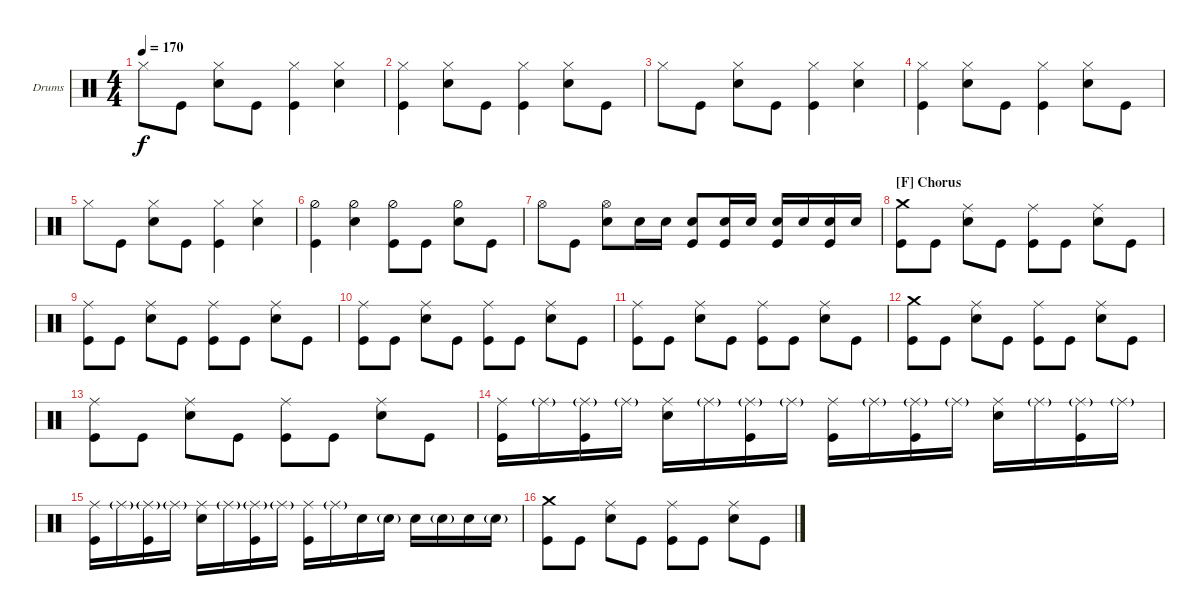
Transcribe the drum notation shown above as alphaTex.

\defaultSystemsLayout 4
\bracketExtendMode groupsimilarinstruments
\firstSystemTrackNameOrientation horizontal
\otherSystemsTrackNameOrientation horizontal
\track ("Benny Horowitz" "Drums") {instrument percussion}
\staff {score}
\articulation defaults
\ts (4 4)
\tempo 170
\clef neutral
\ks c "Hi-Hat (closed)".8{dy f} "Kick (hit)".8
("Snare (hit) 2" "Hi-Hat (closed)").8 "Kick (hit)".8 ("Kick (hit)" "Hi-Hat (closed)").4 ("Snare (hit) 2" "Hi-Hat (closed)").4 |
("Kick (hit)" "Hi-Hat (closed)").4 ("Snare (hit) 2" "Hi-Hat (closed)").8 "Kick (hit)".8 ("Kick (hit)" "Hi-Hat (closed)").4 ("Snare (hit) 2" "Hi-Hat (closed)").8 "Kick (hit)".8 |
"Hi-Hat (closed)".8 "Kick (hit)".8 ("Snare (hit) 2" "Hi-Hat (closed)").8 "Kick (hit)".8 ("Kick (hit)" "Hi-Hat (closed)").4 ("Snare (hit) 2" "Hi-Hat (closed)").4 |
("Kick (hit)" "Hi-Hat (closed)").4 ("Snare (hit) 2" "Hi-Hat (closed)").8 "Kick (hit)".8 ("Kick (hit)" "Hi-Hat (closed)").4 ("Snare (hit) 2" "Hi-Hat (closed)").8 "Kick (hit)".8 |
"Hi-Hat (closed)".8 "Kick (hit)".8 ("Snare (hit) 2" "Hi-Hat (closed)").8 "Kick (hit)".8 ("Kick (hit)" "Hi-Hat (closed)").4 ("Snare (hit) 2" "Hi-Hat (closed)").4 |
("Kick (hit)" "Hi-Hat (half)").4 ("Snare (hit) 2" "Hi-Hat (half)").4 ("Kick (hit)" "Hi-Hat (half)").8 "Kick (hit)".8 ("Snare (hit) 2" "Hi-Hat (half)").8 "Kick (hit)".8 |
"Hi-Hat (open)".8 "Kick (hit)".8 ("Snare (hit) 2" "Hi-Hat (open)").8 "Snare (hit) 2".16 "Snare (hit) 2".16 ("Snare (hit) 2" "Kick (hit)").8 ("Snare (hit) 2" "Kick (hit)").16 "Snare (hit) 2".16 ("Snare (hit) 2" "Kick (hit)").16 "Snare (hit) 2".16 ("Snare (hit) 2" "Kick (hit)").16 "Snare (hit) 2".16 |
\section ("F" "Chorus")
("Crash medium (hit)" "Kick (hit)").8 "Kick (hit)".8 ("Snare (hit) 2" "Ride (middle)").8 "Kick (hit)".8 ("Kick (hit)" "Ride (middle)").8 "Kick (hit)".8 ("Snare (hit) 2" "Ride (middle)").8 "Kick (hit)".8 |
("Kick (hit)" "Ride (middle)").8 "Kick (hit)".8 ("Snare (hit) 2" "Ride (middle)").8 "Kick (hit)".8 ("Kick (hit)" "Ride (middle)").8 "Kick (hit)".8 ("Snare (hit) 2" "Ride (middle)").8 "Kick (hit)".8 |
("Kick (hit)" "Ride (middle)").8 "Kick (hit)".8 ("Snare (hit) 2" "Ride (middle)").8 "Kick (hit)".8 ("Kick (hit)" "Ride (middle)").8 "Kick (hit)".8 ("Snare (hit) 2" "Ride (middle)").8 "Kick (hit)".8 |
("Kick (hit)" "Ride (middle)").8 "Kick (hit)".8 ("Snare (hit) 2" "Ride (middle)").8 "Kick (hit)".8 ("Kick (hit)" "Ride (middle)").8 "Kick (hit)".8 ("Snare (hit) 2" "Ride (middle)").8 "Kick (hit)".8 |
("Crash medium (hit)" "Kick (hit)").8 "Kick (hit)".8 ("Snare (hit) 2" "Ride (middle)").8 "Kick (hit)".8 ("Kick (hit)" "Ride (middle)").8 "Kick (hit)".8 ("Snare (hit) 2" "Ride (middle)").8 "Kick (hit)".8 |
("Kick (hit)" "Ride (middle)").8 "Kick (hit)".8 ("Snare (hit) 2" "Ride (middle)").8 "Kick (hit)".8 ("Kick (hit)" "Ride (middle)").8 "Kick (hit)".8 ("Snare (hit) 2" "Ride (middle)").8 "Kick (hit)".8 |
("Kick (hit)" "Ride (middle)").16 "Ride (middle)"{g}.16 ("Kick (hit)" "Ride (middle)"{g}).16 "Ride (middle)"{g}.16 ("Snare (hit) 2" "Ride (middle)").16 "Ride (middle)"{g}.16 ("Kick (hit)" "Ride (middle)"{g}).16 "Ride (middle)"{g}.16 ("Kick (hit)" "Ride (middle)").16 "Ride (middle)"{g}.16 ("Kick (hit)" "Ride (middle)"{g}).16 "Ride (middle)"{g}.16 ("Snare (hit) 2" "Ride (middle)").16 "Ride (middle)"{g}.16 ("Kick (hit)" "Ride (middle)"{g}).16 "Ride (middle)"{g}.16 |
("Kick (hit)" "Ride (middle)").16 "Ride (middle)"{g}.16 ("Kick (hit)" "Ride (middle)"{g}).16 "Ride (middle)"{g}.16 ("Snare (hit) 2" "Ride (middle)").16 "Ride (middle)"{g}.16 ("Kick (hit)" "Ride (middle)"{g}).16 "Ride (middle)"{g}.16 ("Kick (hit)" "Ride (middle)").16 "Ride (middle)"{g}.16 "Snare (hit) 2".16 "Snare (hit) 2"{g}.16 "Snare (hit) 2".16 "Snare (hit) 2"{g}.16 "Snare (hit) 2".16 "Snare (hit) 2"{g}.16 |
("Crash medium (hit)" "Kick (hit)").8 "Kick (hit)".8 ("Snare (hit) 2" "Ride (middle)").8 "Kick (hit)".8 ("Kick (hit)" "Ride (middle)").8 "Kick (hit)".8 ("Snare (hit) 2" "Ride (middle)").8 "Kick (hit)".8
